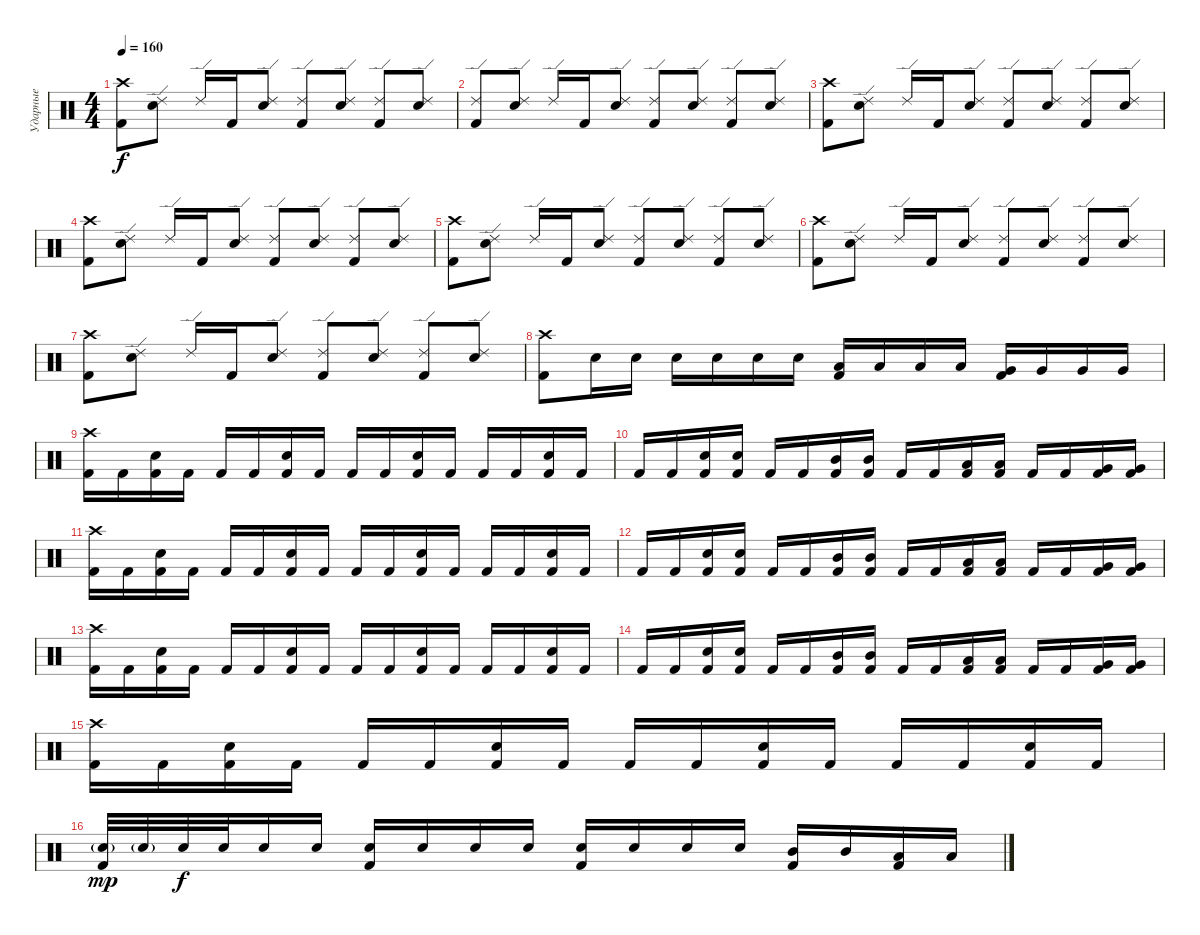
\track ("Ударные" "Ударные") {instrument percussion}
\staff {score}
\articulation defaults
\ts (4 4)
\tempo 160
\clef neutral
\ks c
("Kick (hit) 2" "Crash high (hit)").8{dy f} ("Electric Snare (hit)" "Ride (edge) 2").8 "Ride (edge) 2".16 "Kick (hit) 2".16 ("Electric Snare (hit)" "Ride (edge) 2").8 ("Kick (hit) 2" "Ride (edge) 2").8 ("Electric Snare (hit)" "Ride (edge) 2").8 ("Kick (hit) 2" "Ride (edge) 2").8 ("Electric Snare (hit)" "Ride (edge) 2").8 |
("Kick (hit) 2" "Ride (edge) 2").8 ("Electric Snare (hit)" "Ride (edge) 2").8 "Ride (edge) 2".16 "Kick (hit) 2".16 ("Electric Snare (hit)" "Ride (edge) 2").8 ("Kick (hit) 2" "Ride (edge) 2").8 ("Electric Snare (hit)" "Ride (edge) 2").8 ("Kick (hit) 2" "Ride (edge) 2").8 ("Electric Snare (hit)" "Ride (edge) 2").8 |
("Kick (hit) 2" "Crash high (hit)").8 ("Electric Snare (hit)" "Ride (edge) 2").8 "Ride (edge) 2".16 "Kick (hit) 2".16 ("Electric Snare (hit)" "Ride (edge) 2").8 ("Kick (hit) 2" "Ride (edge) 2").8 ("Electric Snare (hit)" "Ride (edge) 2").8 ("Kick (hit) 2" "Ride (edge) 2").8 ("Electric Snare (hit)" "Ride (edge) 2").8 |
("Kick (hit) 2" "Crash high (hit)").8 ("Electric Snare (hit)" "Ride (edge) 2").8 "Ride (edge) 2".16 "Kick (hit) 2".16 ("Electric Snare (hit)" "Ride (edge) 2").8 ("Kick (hit) 2" "Ride (edge) 2").8 ("Electric Snare (hit)" "Ride (edge) 2").8 ("Kick (hit) 2" "Ride (edge) 2").8 ("Electric Snare (hit)" "Ride (edge) 2").8 |
("Kick (hit) 2" "Crash high (hit)").8 ("Electric Snare (hit)" "Ride (edge) 2").8 "Ride (edge) 2".16 "Kick (hit) 2".16 ("Electric Snare (hit)" "Ride (edge) 2").8 ("Kick (hit) 2" "Ride (edge) 2").8 ("Electric Snare (hit)" "Ride (edge) 2").8 ("Kick (hit) 2" "Ride (edge) 2").8 ("Electric Snare (hit)" "Ride (edge) 2").8 |
("Kick (hit) 2" "Crash high (hit)").8 ("Electric Snare (hit)" "Ride (edge) 2").8 "Ride (edge) 2".16 "Kick (hit) 2".16 ("Electric Snare (hit)" "Ride (edge) 2").8 ("Kick (hit) 2" "Ride (edge) 2").8 ("Electric Snare (hit)" "Ride (edge) 2").8 ("Kick (hit) 2" "Ride (edge) 2").8 ("Electric Snare (hit)" "Ride (edge) 2").8 |
("Kick (hit) 2" "Crash high (hit)").8 ("Electric Snare (hit)" "Ride (edge) 2").8 "Ride (edge) 2".16 "Kick (hit) 2".16 ("Electric Snare (hit)" "Ride (edge) 2").8 ("Kick (hit) 2" "Ride (edge) 2").8 ("Electric Snare (hit)" "Ride (edge) 2").8 ("Kick (hit) 2" "Ride (edge) 2").8 ("Electric Snare (hit)" "Ride (edge) 2").8 |
("Kick (hit) 2" "Crash high (hit)").8 "Electric Snare (hit)".16 "Electric Snare (hit)".16 "Electric Snare (hit)".16 "Electric Snare (hit)".16 "Electric Snare (hit)".16 "Electric Snare (hit)".16 ("Low Tom (hit)" "Kick (hit) 2").16 "Low Tom (hit)".16 "Low Tom (hit)".16 "Low Tom (hit)".16 ("Very Low Tom (hit)" "Kick (hit) 2").16 "Very Low Tom (hit)".16 "Very Low Tom (hit)".16 "Very Low Tom (hit)".16 |
("Kick (hit) 2" "Crash high (hit)").16 "Kick (hit) 2".16 ("Kick (hit) 2" "Electric Snare (hit)").16 "Kick (hit) 2".16 "Kick (hit) 2".16 "Kick (hit) 2".16 ("Kick (hit) 2" "Electric Snare (hit)").16 "Kick (hit) 2".16 "Kick (hit) 2".16 "Kick (hit) 2".16 ("Kick (hit) 2" "Electric Snare (hit)").16 "Kick (hit) 2".16 "Kick (hit) 2".16 "Kick (hit) 2".16 ("Kick (hit) 2" "Electric Snare (hit)").16 "Kick (hit) 2".16 |
"Kick (hit) 2".16 "Kick (hit) 2".16 ("Kick (hit) 2" "Electric Snare (hit)").16 ("Kick (hit) 2" "Electric Snare (hit)").16 "Kick (hit) 2".16 "Kick (hit) 2".16 ("Kick (hit) 2" "Mid Tom (hit)").16 ("Kick (hit) 2" "Mid Tom (hit)").16 "Kick (hit) 2".16 "Kick (hit) 2".16 ("Kick (hit) 2" "Low Tom (hit)").16 ("Kick (hit) 2" "Low Tom (hit)").16 "Kick (hit) 2".16 "Kick (hit) 2".16 ("Kick (hit) 2" "Very Low Tom (hit)").16 ("Kick (hit) 2" "Very Low Tom (hit)").16 |
("Kick (hit) 2" "Crash high (hit)").16 "Kick (hit) 2".16 ("Kick (hit) 2" "Electric Snare (hit)").16 "Kick (hit) 2".16 "Kick (hit) 2".16 "Kick (hit) 2".16 ("Kick (hit) 2" "Electric Snare (hit)").16 "Kick (hit) 2".16 "Kick (hit) 2".16 "Kick (hit) 2".16 ("Kick (hit) 2" "Electric Snare (hit)").16 "Kick (hit) 2".16 "Kick (hit) 2".16 "Kick (hit) 2".16 ("Kick (hit) 2" "Electric Snare (hit)").16 "Kick (hit) 2".16 |
"Kick (hit) 2".16 "Kick (hit) 2".16 ("Kick (hit) 2" "Electric Snare (hit)").16 ("Kick (hit) 2" "Electric Snare (hit)").16 "Kick (hit) 2".16 "Kick (hit) 2".16 ("Kick (hit) 2" "Mid Tom (hit)").16 ("Kick (hit) 2" "Mid Tom (hit)").16 "Kick (hit) 2".16 "Kick (hit) 2".16 ("Kick (hit) 2" "Low Tom (hit)").16 ("Kick (hit) 2" "Low Tom (hit)").16 "Kick (hit) 2".16 "Kick (hit) 2".16 ("Kick (hit) 2" "Very Low Tom (hit)").16 ("Kick (hit) 2" "Very Low Tom (hit)").16 |
("Kick (hit) 2" "Crash high (hit)").16 "Kick (hit) 2".16 ("Kick (hit) 2" "Electric Snare (hit)").16 "Kick (hit) 2".16 "Kick (hit) 2".16 "Kick (hit) 2".16 ("Kick (hit) 2" "Electric Snare (hit)").16 "Kick (hit) 2".16 "Kick (hit) 2".16 "Kick (hit) 2".16 ("Kick (hit) 2" "Electric Snare (hit)").16 "Kick (hit) 2".16 "Kick (hit) 2".16 "Kick (hit) 2".16 ("Kick (hit) 2" "Electric Snare (hit)").16 "Kick (hit) 2".16 |
"Kick (hit) 2".16 "Kick (hit) 2".16 ("Kick (hit) 2" "Electric Snare (hit)").16 ("Kick (hit) 2" "Electric Snare (hit)").16 "Kick (hit) 2".16 "Kick (hit) 2".16 ("Kick (hit) 2" "Mid Tom (hit)").16 ("Kick (hit) 2" "Mid Tom (hit)").16 "Kick (hit) 2".16 "Kick (hit) 2".16 ("Kick (hit) 2" "Low Tom (hit)").16 ("Kick (hit) 2" "Low Tom (hit)").16 "Kick (hit) 2".16 "Kick (hit) 2".16 ("Kick (hit) 2" "Very Low Tom (hit)").16 ("Kick (hit) 2" "Very Low Tom (hit)").16 |
("Kick (hit) 2" "Crash high (hit)").16 "Kick (hit) 2".16 ("Kick (hit) 2" "Electric Snare (hit)").16 "Kick (hit) 2".16 "Kick (hit) 2".16 "Kick (hit) 2".16 ("Kick (hit) 2" "Electric Snare (hit)").16 "Kick (hit) 2".16 "Kick (hit) 2".16 "Kick (hit) 2".16 ("Kick (hit) 2" "Electric Snare (hit)").16 "Kick (hit) 2".16 "Kick (hit) 2".16 "Kick (hit) 2".16 ("Kick (hit) 2" "Electric Snare (hit)").16 "Kick (hit) 2".16 |
("Electric Snare (hit)"{g} "Kick (hit) 2").32{dy mp} "Electric Snare (hit)"{g}.32 "Electric Snare (hit)".32{dy f} "Electric Snare (hit)".32 "Electric Snare (hit)".16 "Electric Snare (hit)".16 ("Electric Snare (hit)" "Kick (hit) 2").16 "Electric Snare (hit)".16 "Electric Snare (hit)".16 "Electric Snare (hit)".16 ("Electric Snare (hit)" "Kick (hit) 2").16 "Electric Snare (hit)".16 "Electric Snare (hit)".16 "Electric Snare (hit)".16 ("Mid Tom (hit)" "Kick (hit) 2").16 "Mid Tom (hit)".16 ("Low Tom (hit)" "Kick (hit) 2").16 "Low Tom (hit)".16
